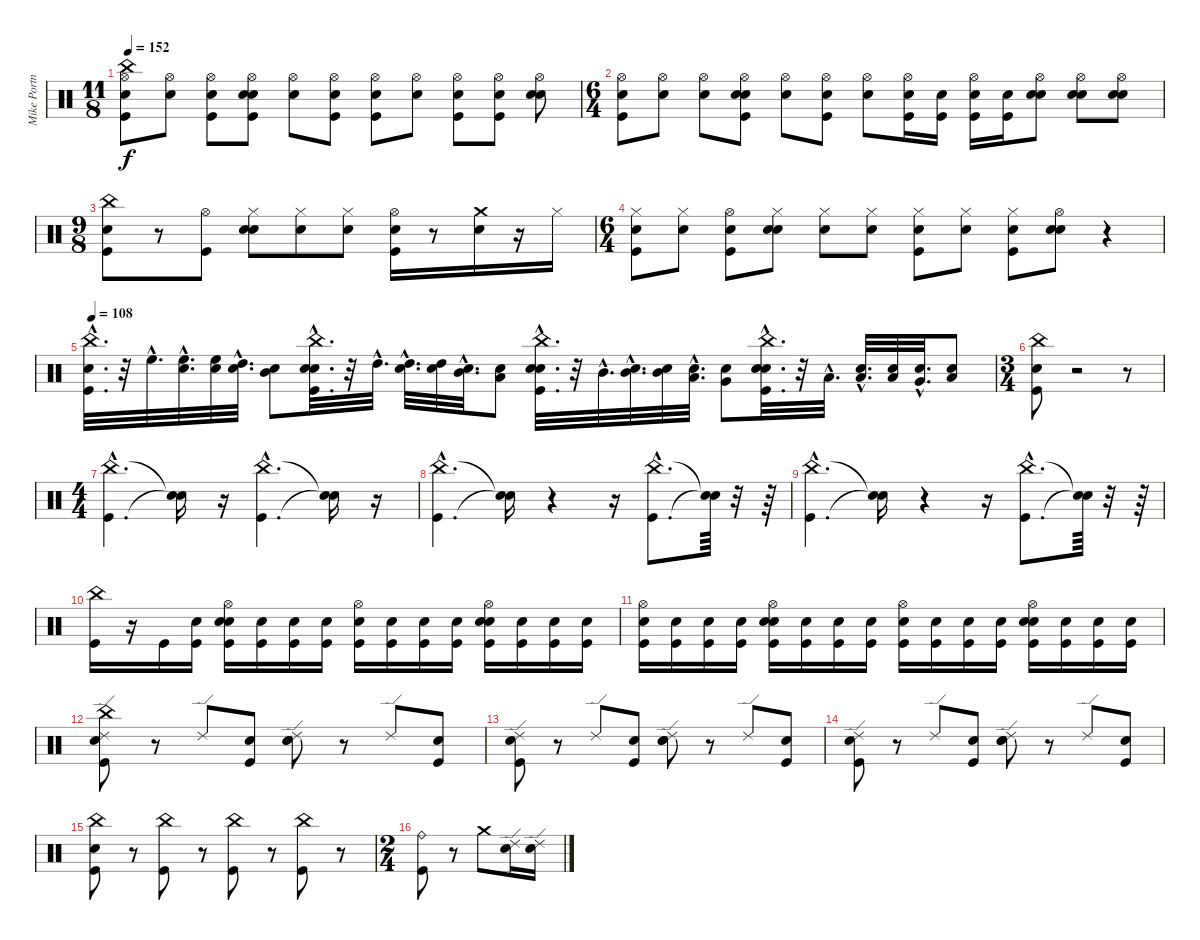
\track ("Mike Portnoy - Drum" "Mike Portn") {instrument percussion}
\staff {score}
\articulation defaults
\ts (11 8)
\tempo 152
\clef neutral
\ks c
("Snare (hit)" "Kick (hit)" "Hi-Hat (open)" "China (hit)").8{dy f} ("Snare (hit)" "Hi-Hat (open)").8 ("Snare (hit)" "Kick (hit)" "Hi-Hat (open)").8 ("Snare (hit)" "Kick (hit)" "Snare (hit) 2" "Hi-Hat (open)").8 ("Snare (hit)" "Hi-Hat (open)").8 ("Snare (hit)" "Kick (hit)" "Hi-Hat (open)").8 ("Snare (hit)" "Kick (hit)" "Hi-Hat (open)").8 ("Snare (hit)" "Hi-Hat (open)").8 ("Snare (hit)" "Kick (hit)" "Hi-Hat (open)").8 ("Snare (hit)" "Kick (hit)" "Hi-Hat (open)").8 ("Snare (hit)" "Snare (hit) 2" "Hi-Hat (open)").8 |
\ts (6 4)
("Snare (hit)" "Kick (hit)" "Hi-Hat (open)").8 ("Snare (hit)" "Hi-Hat (open)").8 ("Snare (hit)" "Hi-Hat (open)").8 ("Snare (hit)" "Kick (hit)" "Snare (hit) 2" "Hi-Hat (open)").8 ("Snare (hit)" "Hi-Hat (open)").8 ("Snare (hit)" "Kick (hit)" "Hi-Hat (open)").8 ("Snare (hit)" "Hi-Hat (open)").8 ("Snare (hit)" "Kick (hit)" "Hi-Hat (open)").16 ("Snare (hit)" "Kick (hit)").16 ("Snare (hit)" "Kick (hit)" "Hi-Hat (open)").16 ("Snare (hit)" "Kick (hit)").16 ("Snare (hit)" "Snare (hit) 2" "Hi-Hat (open)").8 ("Snare (hit)" "Snare (hit) 2" "Hi-Hat (open)").8 ("Snare (hit)" "Snare (hit) 2" "Hi-Hat (open)").8 |
\ts (9 8)
("Snare (hit)" "Kick (hit)" "China (hit)").8 r.8 ("Kick (hit)" "Hi-Hat (open)").8 ("Snare (hit)" "Snare (hit) 2" "Hi-Hat (closed)").8 ("Snare (hit)" "Hi-Hat (closed)").8 ("Snare (hit)" "Hi-Hat (closed)").8 ("Snare (hit)" "Kick (hit)" "Hi-Hat (open)").16 r.8 ("Snare (hit) 2" "Crash medium (hit)").16 r.16 "Hi-Hat (closed)".16 |
\ts (6 4)
("Snare (hit)" "Kick (hit)" "Hi-Hat (closed)").8 ("Snare (hit)" "Hi-Hat (closed)").8 ("Snare (hit)" "Kick (hit)" "Hi-Hat (open)").8 ("Snare (hit)" "Snare (hit) 2" "Hi-Hat (closed)").8 ("Snare (hit)" "Hi-Hat (closed)").8 ("Snare (hit)" "Hi-Hat (closed)").8 ("Snare (hit)" "Kick (hit)" "Hi-Hat (closed)").8 ("Snare (hit)" "Hi-Hat (closed)").8 ("Snare (hit)" "Kick (hit)" "Hi-Hat (closed)").8 ("Snare (hit)" "Snare (hit) 2" "Hi-Hat (open)").8 r.4 |
\tempo 108
("Kick (hit)"{hac} "Snare (hit) 2"{hac} "China (hit)"{hac}).32{d} r.32 "High Floor Tom (hit)"{hac}.32{d} ("Snare (hit)"{hac} "High Floor Tom (hit)"{hac}).32{d} ("Snare (hit)" "High Floor Tom (hit)").32 ("Snare (hit)"{hac} "High Tom (hit)"{hac}).32{d} ("Snare (hit)" "Mid Tom (hit)").8 ("Snare (hit)"{hac} "Kick (hit)"{hac} "Snare (hit) 2"{hac} "China (hit)"{hac}).32{d} r.32 "High Tom (hit)"{hac}.32{d} ("Snare (hit)"{hac} "High Tom (hit)"{hac}).32{d} ("Snare (hit)" "High Tom (hit)").32 ("Snare (hit)"{hac} "Mid Tom (hit)"{hac}).32{d} ("Snare (hit)" "Low Tom (hit)").8 ("Snare (hit)"{hac} "Kick (hit)"{hac} "Snare (hit) 2"{hac} "China (hit)"{hac}).32{d} r.32 "Mid Tom (hit)"{hac}.32{d} ("Snare (hit)"{hac} "Mid Tom (hit)"{hac}).32{d} ("Snare (hit)" "Mid Tom (hit)").32 ("Snare (hit)"{hac} "Low Tom (hit)"{hac}).32{d} ("Snare (hit)" "Very Low Tom (hit)").8 ("Snare (hit)"{hac} "Kick (hit)"{hac} "Snare (hit) 2"{hac} "China (hit)"{hac}).32{d} r.32 "Low Tom (hit)"{hac}.32{d} ("Snare (hit)"{hac} "Low Tom (hit)"{hac}).32{d} ("Snare (hit)" "Low Tom (hit)").32 ("Snare (hit)"{hac} "Very Low Tom (hit)"{hac}).32{d} ("Snare (hit)" "Low Floor Tom (hit)").8 |
\ts (3 4)
("Snare (hit)" "Kick (hit)" "China (hit)").8 r.2 r.8 |
\ts (4 4)
("Kick (hit)"{hac} "China (hit)"{hac}).4{d} ("Snare (hit)"{t} "Snare (hit)"{t}).16 r.16 ("Kick (hit)"{hac} "China (hit)"{hac}).4{d} ("Snare (hit)"{t} "Snare (hit)"{t}).16 r.16 |
("Kick (hit)"{hac} "China (hit)"{hac}).4{d} ("Snare (hit)"{t} "Snare (hit)"{t}).16 r.4 r.16 ("Kick (hit)"{hac} "China (hit)"{hac}).8{d} ("Snare (hit)"{t} "Snare (hit)"{t}).64 r.32 r.64 |
("Kick (hit)"{hac} "China (hit)"{hac}).4{d} ("Snare (hit)"{t} "Snare (hit)"{t}).16 r.4 r.16 ("Kick (hit)"{hac} "China (hit)"{hac}).8{d} ("Snare (hit)"{t} "Snare (hit)"{t}).64 r.32 r.64 |
("Kick (hit)" "China (hit)").16 r.16 "Kick (hit)".16 ("Snare (hit)" "Kick (hit)").16 ("Snare (hit)" "Kick (hit)" "Snare (hit) 2" "Hi-Hat (open)").16 ("Snare (hit)" "Kick (hit)").16 ("Snare (hit)" "Kick (hit)").16 ("Snare (hit)" "Kick (hit)").16 ("Snare (hit)" "Kick (hit)" "Hi-Hat (open)").16 ("Snare (hit)" "Kick (hit)").16 ("Snare (hit)" "Kick (hit)").16 ("Snare (hit)" "Kick (hit)").16 ("Snare (hit)" "Kick (hit)" "Snare (hit) 2" "Hi-Hat (open)").16 ("Snare (hit)" "Kick (hit)").16 ("Snare (hit)" "Kick (hit)").16 ("Snare (hit)" "Kick (hit)").16 |
("Snare (hit)" "Kick (hit)" "Hi-Hat (open)").16 ("Snare (hit)" "Kick (hit)").16 ("Snare (hit)" "Kick (hit)").16 ("Snare (hit)" "Kick (hit)").16 ("Snare (hit)" "Kick (hit)" "Snare (hit) 2" "Hi-Hat (open)").16 ("Snare (hit)" "Kick (hit)").16 ("Snare (hit)" "Kick (hit)").16 ("Snare (hit)" "Kick (hit)").16 ("Snare (hit)" "Kick (hit)" "Hi-Hat (open)").16 ("Snare (hit)" "Kick (hit)").16 ("Snare (hit)" "Kick (hit)").16 ("Snare (hit)" "Kick (hit)").16 ("Snare (hit)" "Kick (hit)" "Snare (hit) 2" "Hi-Hat (open)").16 ("Snare (hit)" "Kick (hit)").16 ("Snare (hit)" "Kick (hit)").16 ("Snare (hit)" "Kick (hit)").16 |
("Snare (hit)" "Kick (hit)" "China (hit)" "Ride (edge) 2").8 r.8 "Ride (edge) 2".8 ("Snare (hit)" "Kick (hit)").8 ("Snare (hit)" "Snare (hit) 2" "Ride (edge) 2").8 r.8 "Ride (edge) 2".8 ("Snare (hit)" "Kick (hit)").8 |
("Snare (hit)" "Kick (hit)" "Ride (edge) 2").8 r.8 "Ride (edge) 2".8 ("Snare (hit)" "Kick (hit)").8 ("Snare (hit)" "Snare (hit) 2" "Ride (edge) 2").8 r.8 "Ride (edge) 2".8 ("Snare (hit)" "Kick (hit)").8 |
("Snare (hit)" "Kick (hit)" "Ride (edge) 2").8 r.8 "Ride (edge) 2".8 ("Snare (hit)" "Kick (hit)").8 ("Snare (hit)" "Snare (hit) 2" "Ride (edge) 2").8 r.8 "Ride (edge) 2".8 ("Snare (hit)" "Kick (hit)").8 |
("Snare (hit)" "Kick (hit)" "China (hit)").8 r.8 ("Kick (hit)" "China (hit)").8 r.8 ("Kick (hit)" "China (hit)").8 r.8 ("Kick (hit)" "China (hit)").8 r.8 |
\ts (2 4)
("Kick (hit)" "Ride (bell)").8 r.8 "Crash medium (hit)".8 ("Snare (hit)" "Ride (edge) 2").16 ("Snare (hit)" "Ride (edge) 2").16
